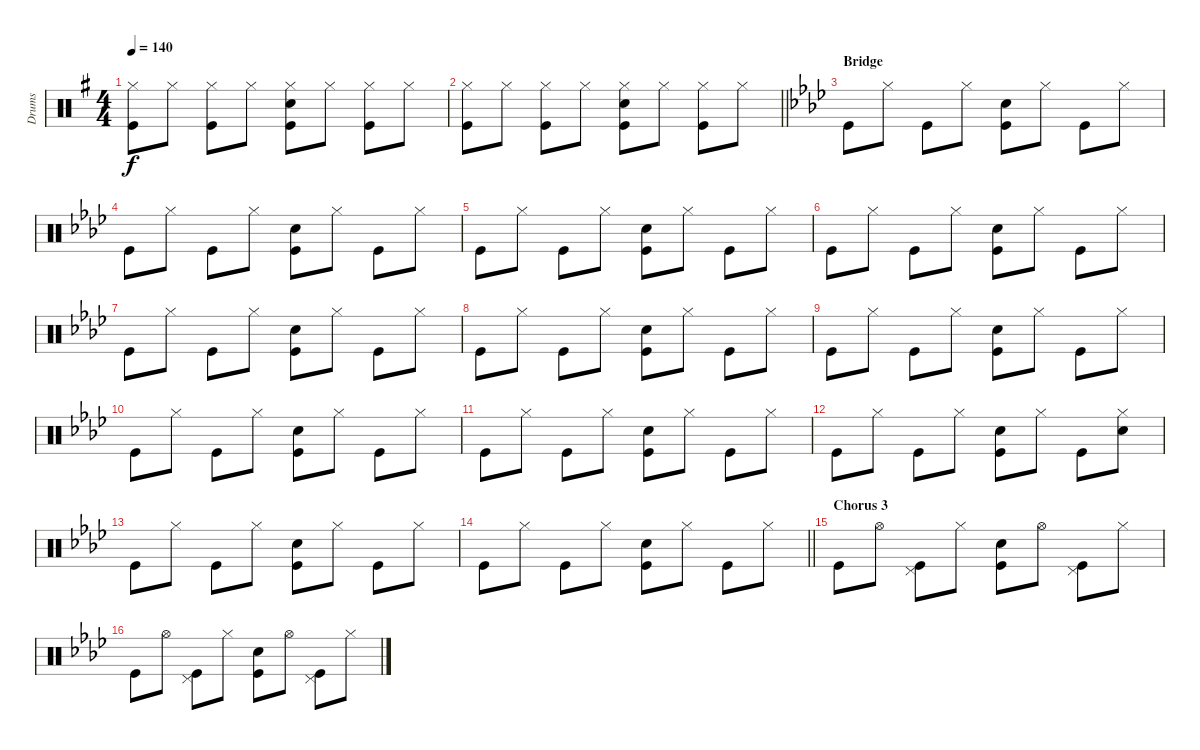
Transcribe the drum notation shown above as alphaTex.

\track ("Drums" "Drums") {instrument percussion}
\staff {score}
\articulation defaults
\ts (4 4)
\tempo 140
\clef neutral
\ks g
("Hi-Hat (closed)" "Kick (hit)").8{dy f} "Hi-Hat (closed)".8 ("Hi-Hat (closed)" "Kick (hit)").8 "Hi-Hat (closed)".8 ("Hi-Hat (closed)" "Snare (hit) 2" "Kick (hit)").8 "Hi-Hat (closed)".8 ("Hi-Hat (closed)" "Kick (hit)").8 "Hi-Hat (closed)".8 |
\barLineRight lightlight
("Hi-Hat (closed)" "Kick (hit)").8 "Hi-Hat (closed)".8 ("Hi-Hat (closed)" "Kick (hit)").8 "Hi-Hat (closed)".8 ("Hi-Hat (closed)" "Snare (hit) 2" "Kick (hit)").8 "Hi-Hat (closed)".8 ("Hi-Hat (closed)" "Kick (hit)").8 "Hi-Hat (closed)".8 |
\section ("" "Bridge")
\ks ab "Kick (hit)".8 "Hi-Hat (closed)".8 "Kick (hit)".8 "Hi-Hat (closed)".8
("Snare (hit) 2" "Kick (hit)").8 "Hi-Hat (closed)".8 "Kick (hit)".8 "Hi-Hat (closed)".8 |
"Kick (hit)".8 "Hi-Hat (closed)".8 "Kick (hit)".8 "Hi-Hat (closed)".8 ("Snare (hit) 2" "Kick (hit)").8 "Hi-Hat (closed)".8 "Kick (hit)".8 "Hi-Hat (closed)".8 |
"Kick (hit)".8 "Hi-Hat (closed)".8 "Kick (hit)".8 "Hi-Hat (closed)".8 ("Snare (hit) 2" "Kick (hit)").8 "Hi-Hat (closed)".8 "Kick (hit)".8 "Hi-Hat (closed)".8 |
"Kick (hit)".8 "Hi-Hat (closed)".8 "Kick (hit)".8 "Hi-Hat (closed)".8 ("Snare (hit) 2" "Kick (hit)").8 "Hi-Hat (closed)".8 "Kick (hit)".8 "Hi-Hat (closed)".8 |
"Kick (hit)".8 "Hi-Hat (closed)".8 "Kick (hit)".8 "Hi-Hat (closed)".8 ("Snare (hit) 2" "Kick (hit)").8 "Hi-Hat (closed)".8 "Kick (hit)".8 "Hi-Hat (closed)".8 |
"Kick (hit)".8 "Hi-Hat (closed)".8 "Kick (hit)".8 "Hi-Hat (closed)".8 ("Snare (hit) 2" "Kick (hit)").8 "Hi-Hat (closed)".8 "Kick (hit)".8 "Hi-Hat (closed)".8 |
"Kick (hit)".8 "Hi-Hat (closed)".8 "Kick (hit)".8 "Hi-Hat (closed)".8 ("Snare (hit) 2" "Kick (hit)").8 "Hi-Hat (closed)".8 "Kick (hit)".8 "Hi-Hat (closed)".8 |
"Kick (hit)".8 "Hi-Hat (closed)".8 "Kick (hit)".8 "Hi-Hat (closed)".8 ("Snare (hit) 2" "Kick (hit)").8 "Hi-Hat (closed)".8 "Kick (hit)".8 "Hi-Hat (closed)".8 |
"Kick (hit)".8 "Hi-Hat (closed)".8 "Kick (hit)".8 "Hi-Hat (closed)".8 ("Snare (hit) 2" "Kick (hit)").8 "Hi-Hat (closed)".8 "Kick (hit)".8 "Hi-Hat (closed)".8 |
"Kick (hit)".8 "Hi-Hat (closed)".8 "Kick (hit)".8 "Hi-Hat (closed)".8 ("Snare (hit) 2" "Kick (hit)").8 "Hi-Hat (closed)".8 "Kick (hit)".8 ("Hi-Hat (closed)" "Snare (hit) 2").8 |
"Kick (hit)".8 "Hi-Hat (closed)".8 "Kick (hit)".8 "Hi-Hat (closed)".8 ("Snare (hit) 2" "Kick (hit)").8 "Hi-Hat (closed)".8 "Kick (hit)".8 "Hi-Hat (closed)".8 |
\barLineRight lightlight "Kick (hit)".8 "Hi-Hat (closed)".8 "Kick (hit)".8 "Hi-Hat (closed)".8
("Snare (hit) 2" "Kick (hit)").8 "Hi-Hat (closed)".8 "Kick (hit)".8 "Hi-Hat (closed)".8 |
\section ("" "Chorus 3")
"Kick (hit)".8 "Hi-Hat (open)".8 ("Pedal Hi-Hat (hit)" "Kick (hit)").8 "Hi-Hat (closed)".8 ("Snare (hit) 2" "Kick (hit)").8 "Hi-Hat (open)".8 ("Pedal Hi-Hat (hit)" "Kick (hit)").8 "Hi-Hat (closed)".8 |
"Kick (hit)".8 "Hi-Hat (open)".8 ("Pedal Hi-Hat (hit)" "Kick (hit)").8 "Hi-Hat (closed)".8 ("Snare (hit) 2" "Kick (hit)").8 "Hi-Hat (open)".8 ("Pedal Hi-Hat (hit)" "Kick (hit)").8 "Hi-Hat (closed)".8
